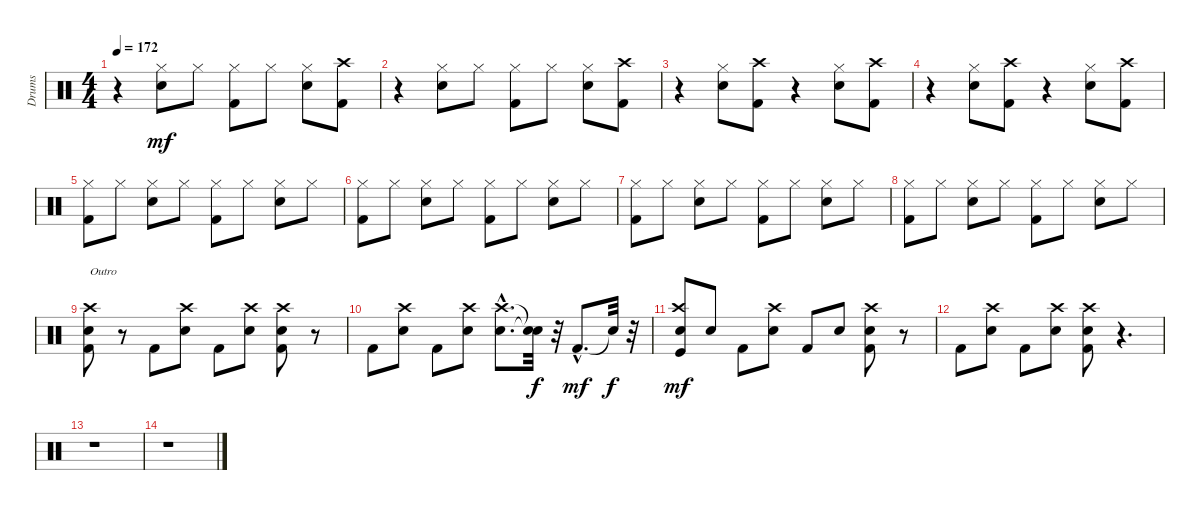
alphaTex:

\track ("Drums" "Drums") {instrument percussion}
\staff {score}
\articulation defaults
\ts (4 4)
\tempo 172
\clef neutral
\ks c
r.4{dy mf} ("Hi-Hat (closed)" "Snare (hit) 2").8 "Hi-Hat (closed)".8 ("Hi-Hat (closed)" "Kick (hit) 2").8 "Hi-Hat (closed)".8 ("Hi-Hat (closed)" "Snare (hit) 2").8 ("Crash high (hit)" "Kick (hit) 2").8 |
r.4 ("Hi-Hat (closed)" "Snare (hit) 2").8 "Hi-Hat (closed)".8 ("Hi-Hat (closed)" "Kick (hit) 2").8 "Hi-Hat (closed)".8 ("Hi-Hat (closed)" "Snare (hit) 2").8 ("Crash high (hit)" "Kick (hit) 2").8 |
r.4 ("Hi-Hat (closed)" "Snare (hit) 2").8 ("Kick (hit) 2" "Crash high (hit)").8 r.4 ("Snare (hit) 2" "Hi-Hat (closed)").8 ("Kick (hit) 2" "Crash high (hit)").8 |
r.4 ("Hi-Hat (closed)" "Snare (hit) 2").8 ("Kick (hit) 2" "Crash high (hit)").8 r.4 ("Hi-Hat (closed)" "Snare (hit) 2").8 ("Kick (hit) 2" "Crash high (hit)").8 |
("Hi-Hat (closed)" "Kick (hit) 2").8 "Hi-Hat (closed)".8 ("Hi-Hat (closed)" "Snare (hit) 2").8 "Hi-Hat (closed)".8 ("Hi-Hat (closed)" "Kick (hit) 2").8 "Hi-Hat (closed)".8 ("Hi-Hat (closed)" "Snare (hit) 2").8 "Hi-Hat (closed)".8 |
("Hi-Hat (closed)" "Kick (hit) 2").8 "Hi-Hat (closed)".8 ("Hi-Hat (closed)" "Snare (hit) 2").8 "Hi-Hat (closed)".8 ("Hi-Hat (closed)" "Kick (hit) 2").8 "Hi-Hat (closed)".8 ("Hi-Hat (closed)" "Snare (hit) 2").8 "Hi-Hat (closed)".8 |
("Hi-Hat (closed)" "Kick (hit) 2").8 "Hi-Hat (closed)".8 ("Hi-Hat (closed)" "Snare (hit) 2").8 "Hi-Hat (closed)".8 ("Hi-Hat (closed)" "Kick (hit) 2").8 "Hi-Hat (closed)".8 ("Hi-Hat (closed)" "Snare (hit) 2").8 "Hi-Hat (closed)".8 |
("Hi-Hat (closed)" "Kick (hit) 2").8 "Hi-Hat (closed)".8 ("Hi-Hat (closed)" "Snare (hit) 2").8 "Hi-Hat (closed)".8 ("Hi-Hat (closed)" "Kick (hit) 2").8 "Hi-Hat (closed)".8 ("Hi-Hat (closed)" "Snare (hit) 2").8 "Hi-Hat (closed)".8 |
("Crash high (hit)" "Snare (hit) 2" "Kick (hit) 2").8{txt "Outro"} r.8 "Kick (hit) 2".8 ("Crash high (hit)" "Snare (hit) 2").8 "Kick (hit) 2".8 ("Crash high (hit)" "Snare (hit) 2").8 ("Crash high (hit)" "Snare (hit) 2" "Kick (hit) 2").8 r.8 |
"Kick (hit) 2".8 ("Crash high (hit)" "Snare (hit) 2").8 "Kick (hit) 2".8 ("Crash high (hit)" "Snare (hit) 2").8 ("Crash high (hit)"{hac} "Snare (hit) 2"{hac}).8{d} ("Snare (hit)"{t} "Snare (hit)"{t}).32{dy f} r.32 "Kick (hit) 2"{hac}.8{d dy mf} "Snare (hit)"{t}.32{dy f} r.32 |
("Crash high (hit)" "Snare (hit) 2" "Kick (hit)").8{dy mf} "Snare (hit) 2".8 "Kick (hit) 2".8 ("Crash high (hit)" "Snare (hit) 2").8 "Kick (hit) 2".8 "Snare (hit) 2".8 ("Crash high (hit)" "Kick (hit) 2" "Snare (hit) 2").8 r.8 |
"Kick (hit) 2".8 ("Snare (hit) 2" "Crash high (hit)").8 "Kick (hit) 2".8 ("Crash high (hit)" "Snare (hit) 2").8 ("Crash high (hit)" "Kick (hit) 2" "Snare (hit) 2").8 r.4{d} |
r.1 |
r.1
